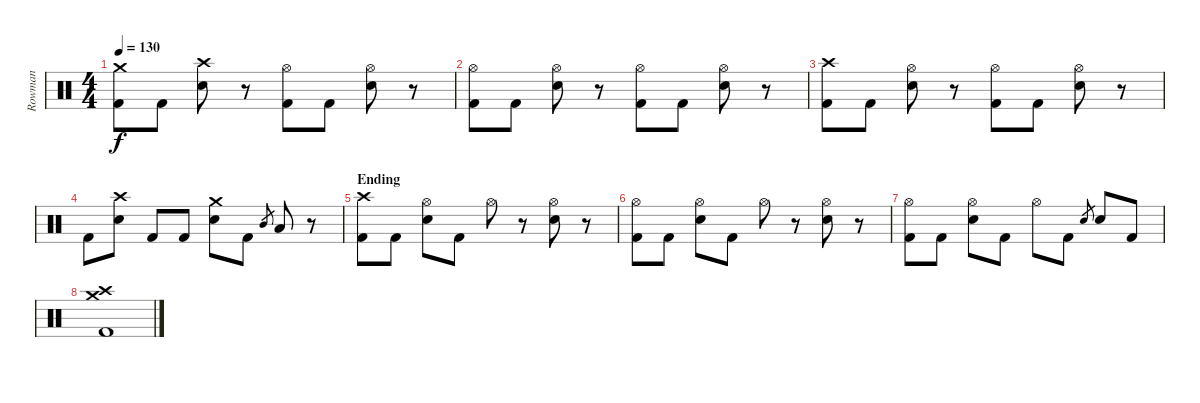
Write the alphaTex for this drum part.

\track ("Rowman" "Rowman") {instrument percussion}
\staff {score}
\articulation defaults
\ts (4 4)
\tempo 130
\clef neutral
\ks c
("Kick (hit) 2" "Crash medium (hit)").8{dy f} "Kick (hit) 2".8 ("Electric Snare (hit)" "Crash high (hit)").8 r.8 ("Kick (hit) 2" "Hi-Hat (open)").8 "Kick (hit) 2".8 ("Electric Snare (hit)" "Hi-Hat (open)").8 r.8 |
("Kick (hit) 2" "Hi-Hat (open)").8 "Kick (hit) 2".8 ("Electric Snare (hit)" "Hi-Hat (open)").8 r.8 ("Kick (hit) 2" "Hi-Hat (open)").8 "Kick (hit) 2".8 ("Electric Snare (hit)" "Hi-Hat (open)").8 r.8 |
("Kick (hit) 2" "Crash high (hit)").8 "Kick (hit) 2".8 ("Electric Snare (hit)" "Hi-Hat (open)").8 r.8 ("Kick (hit) 2" "Hi-Hat (open)").8 "Kick (hit) 2".8 ("Electric Snare (hit)" "Hi-Hat (open)").8 r.8 |
"Kick (hit) 2".8 ("Electric Snare (hit)" "Crash high (hit)").8 "Kick (hit) 2".8 "Kick (hit) 2".8 ("Electric Snare (hit)" "Crash medium (hit)").8 "Kick (hit) 2".8 "Mid Tom (hit)".8{gr} "Low Tom (hit)".8 r.8 |
\section ("" "Ending")
("Kick (hit) 2" "Crash high (hit)").8 "Kick (hit) 2".8 ("Electric Snare (hit)" "Hi-Hat (open)").8 "Kick (hit) 2".8 "Hi-Hat (open)".8 r.8 ("Electric Snare (hit)" "Hi-Hat (open)").8 r.8 |
("Kick (hit) 2" "Hi-Hat (open)").8 "Kick (hit) 2".8 ("Electric Snare (hit)" "Hi-Hat (open)").8 "Kick (hit) 2".8 "Hi-Hat (open)".8 r.8 ("Electric Snare (hit)" "Hi-Hat (open)").8 r.8 |
("Kick (hit) 2" "Hi-Hat (open)").8 "Kick (hit) 2".8 ("Electric Snare (hit)" "Hi-Hat (open)").8 "Kick (hit) 2".8 "Hi-Hat (open)".8 "Kick (hit) 2".8 "Electric Snare (hit)".8{gr} "Electric Snare (hit)".8 "Kick (hit) 2".8 |
("Kick (hit) 2" "Crash high (hit)" "Crash medium (hit)").1
